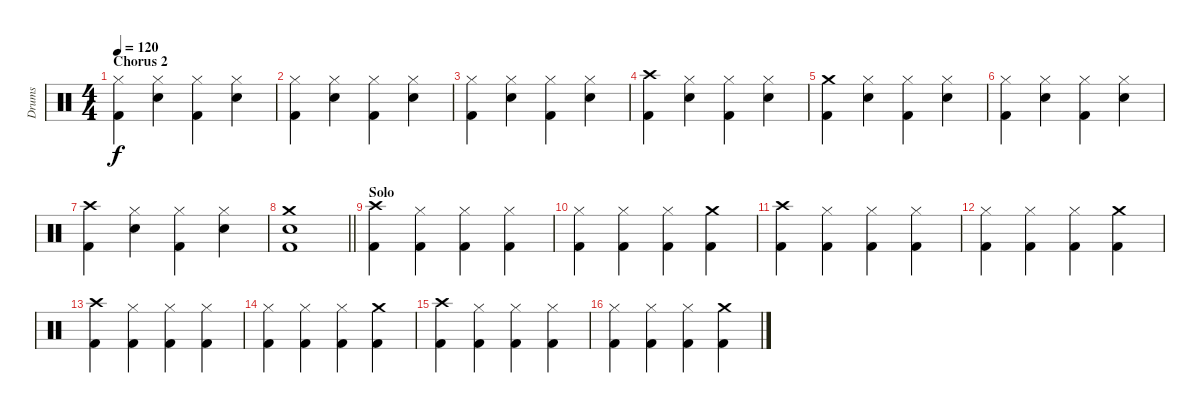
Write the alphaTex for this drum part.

\track ("Drums" "Drums") {instrument percussion}
\staff {score}
\articulation defaults
\ts (4 4)
\section ("" "Chorus 2")
\tempo 120
\clef neutral
\ks c
("Hi-Hat (closed)" "Kick (hit) 2").4{dy f} ("Hi-Hat (closed)" "Electric Snare (hit)").4 ("Hi-Hat (closed)" "Kick (hit) 2").4 ("Hi-Hat (closed)" "Electric Snare (hit)").4 |
("Hi-Hat (closed)" "Kick (hit) 2").4 ("Hi-Hat (closed)" "Electric Snare (hit)").4 ("Hi-Hat (closed)" "Kick (hit) 2").4 ("Hi-Hat (closed)" "Electric Snare (hit)").4 |
("Hi-Hat (closed)" "Kick (hit) 2").4 ("Hi-Hat (closed)" "Electric Snare (hit)").4 ("Hi-Hat (closed)" "Kick (hit) 2").4 ("Hi-Hat (closed)" "Electric Snare (hit)").4 |
("Crash high (hit)" "Kick (hit) 2").4 ("Hi-Hat (closed)" "Electric Snare (hit)").4 ("Hi-Hat (closed)" "Kick (hit) 2").4 ("Hi-Hat (closed)" "Electric Snare (hit)").4 |
("Crash medium (hit)" "Kick (hit) 2").4 ("Hi-Hat (closed)" "Electric Snare (hit)").4 ("Hi-Hat (closed)" "Kick (hit) 2").4 ("Hi-Hat (closed)" "Electric Snare (hit)").4 |
("Hi-Hat (closed)" "Kick (hit) 2").4 ("Hi-Hat (closed)" "Electric Snare (hit)").4 ("Hi-Hat (closed)" "Kick (hit) 2").4 ("Hi-Hat (closed)" "Electric Snare (hit)").4 |
("Crash high (hit)" "Kick (hit) 2").4 ("Hi-Hat (closed)" "Electric Snare (hit)").4 ("Hi-Hat (closed)" "Kick (hit) 2").4 ("Hi-Hat (closed)" "Electric Snare (hit)").4 |
\barLineRight lightlight
("Crash medium (hit)" "Electric Snare (hit)" "Kick (hit) 2").1 |
\section ("" "Solo")
("Crash high (hit)" "Kick (hit) 2").4 ("Hi-Hat (closed)" "Kick (hit) 2").4 ("Hi-Hat (closed)" "Kick (hit) 2").4 ("Hi-Hat (closed)" "Kick (hit) 2").4 |
("Hi-Hat (closed)" "Kick (hit) 2").4 ("Hi-Hat (closed)" "Kick (hit) 2").4 ("Hi-Hat (closed)" "Kick (hit) 2").4 ("Crash medium (hit)" "Kick (hit) 2").4 |
("Crash high (hit)" "Kick (hit) 2").4 ("Hi-Hat (closed)" "Kick (hit) 2").4 ("Hi-Hat (closed)" "Kick (hit) 2").4 ("Hi-Hat (closed)" "Kick (hit) 2").4 |
("Hi-Hat (closed)" "Kick (hit) 2").4 ("Hi-Hat (closed)" "Kick (hit) 2").4 ("Hi-Hat (closed)" "Kick (hit) 2").4 ("Crash medium (hit)" "Kick (hit) 2").4 |
("Crash high (hit)" "Kick (hit) 2").4 ("Hi-Hat (closed)" "Kick (hit) 2").4 ("Hi-Hat (closed)" "Kick (hit) 2").4 ("Hi-Hat (closed)" "Kick (hit) 2").4 |
("Hi-Hat (closed)" "Kick (hit) 2").4 ("Hi-Hat (closed)" "Kick (hit) 2").4 ("Hi-Hat (closed)" "Kick (hit) 2").4 ("Crash medium (hit)" "Kick (hit) 2").4 |
("Crash high (hit)" "Kick (hit) 2").4 ("Hi-Hat (closed)" "Kick (hit) 2").4 ("Hi-Hat (closed)" "Kick (hit) 2").4 ("Hi-Hat (closed)" "Kick (hit) 2").4 |
("Hi-Hat (closed)" "Kick (hit) 2").4 ("Hi-Hat (closed)" "Kick (hit) 2").4 ("Hi-Hat (closed)" "Kick (hit) 2").4 ("Crash medium (hit)" "Kick (hit) 2").4
